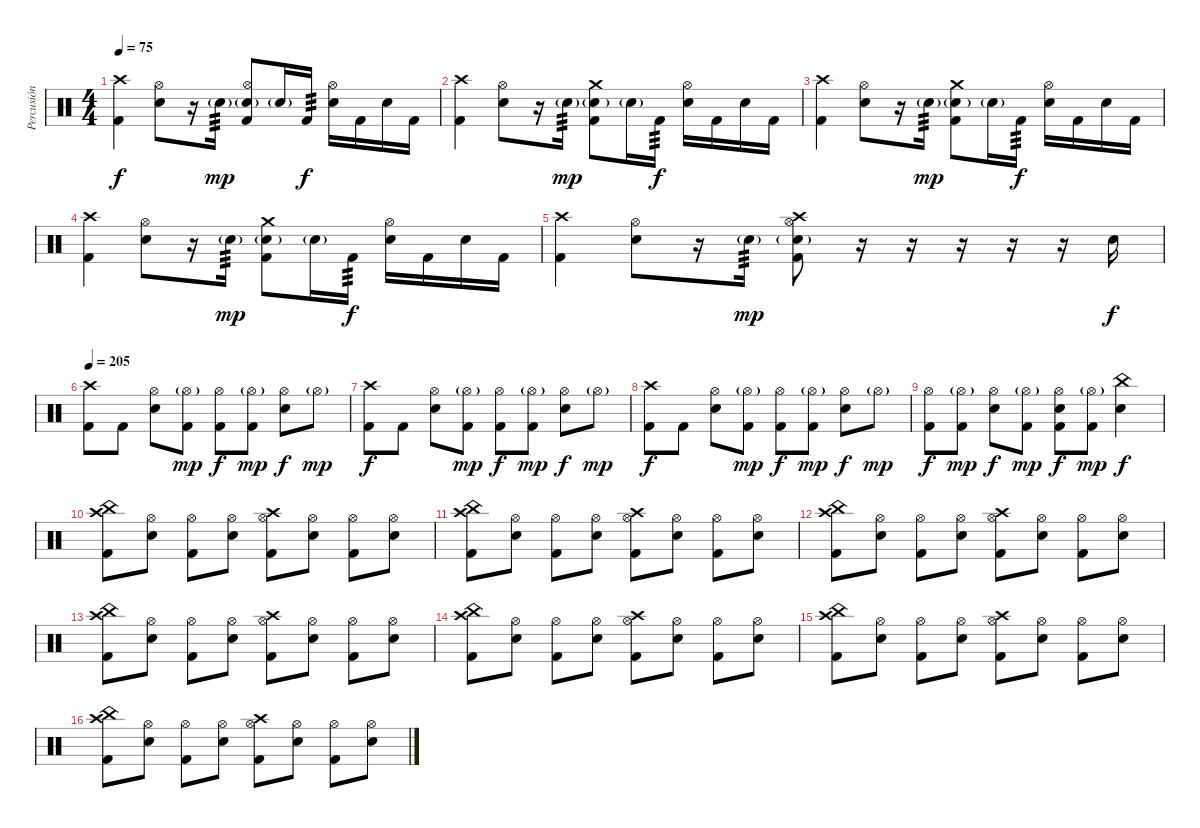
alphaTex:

\track ("Percusión" "Percusión") {instrument percussion}
\staff {score}
\articulation defaults
\ts (4 4)
\tempo 75
\clef neutral
\ks c
("Crash high (hit)" "Kick (hit) 2").4{dy f} ("Hi-Hat (open)" "Electric Snare (hit)").8 r.16 "Electric Snare (hit)"{g}.16{tp 3 dy mp} ("Hi-Hat (open)" "Electric Snare (hit)"{g} "Kick (hit) 2").8 "Electric Snare (hit)"{g}.16 "Kick (hit) 2".16{tp 3 dy f} ("Hi-Hat (open)" "Electric Snare (hit)").16 "Kick (hit) 2".16 "Electric Snare (hit)".16 "Kick (hit) 2".16 |
("Crash high (hit)" "Kick (hit) 2").4 ("Hi-Hat (open)" "Electric Snare (hit)").8 r.16 "Electric Snare (hit)"{g}.16{tp 3 dy mp} ("Crash medium (hit)" "Electric Snare (hit)"{g} "Kick (hit) 2").8 "Electric Snare (hit)"{g}.16 "Kick (hit) 2".16{tp 3 dy f} ("Hi-Hat (open)" "Electric Snare (hit)").16 "Kick (hit) 2".16 "Electric Snare (hit)".16 "Kick (hit) 2".16 |
("Crash high (hit)" "Kick (hit) 2").4 ("Hi-Hat (open)" "Electric Snare (hit)").8 r.16 "Electric Snare (hit)"{g}.16{tp 3 dy mp} ("Crash medium (hit)" "Electric Snare (hit)"{g} "Kick (hit) 2").8 "Electric Snare (hit)"{g}.16 "Kick (hit) 2".16{tp 3 dy f} ("Hi-Hat (open)" "Electric Snare (hit)").16 "Kick (hit) 2".16 "Electric Snare (hit)".16 "Kick (hit) 2".16 |
("Crash high (hit)" "Kick (hit) 2").4 ("Hi-Hat (open)" "Electric Snare (hit)").8 r.16 "Electric Snare (hit)"{g}.16{tp 3 dy mp} ("Crash medium (hit)" "Electric Snare (hit)"{g} "Kick (hit) 2").8 "Electric Snare (hit)"{g}.16 "Kick (hit) 2".16{tp 3 dy f} ("Hi-Hat (open)" "Electric Snare (hit)").16 "Kick (hit) 2".16 "Electric Snare (hit)".16 "Kick (hit) 2".16 |
("Crash high (hit)" "Kick (hit) 2").4 ("Hi-Hat (open)" "Electric Snare (hit)").8 r.16 "Electric Snare (hit)"{g}.16{tp 3 dy mp} ("Crash high (hit)" "Hi-Hat (open)" "Electric Snare (hit)"{g} "Kick (hit) 2").8 r.16 r.16 r.16 r.16 r.16 "Electric Snare (hit)".16{dy f} |
\tempo 205
("Crash high (hit)" "Kick (hit) 2").8 "Kick (hit) 2".8 ("Hi-Hat (open)" "Electric Snare (hit)").8 ("Hi-Hat (open)"{g} "Kick (hit) 2").8{dy mp} ("Hi-Hat (open)" "Kick (hit) 2").8{dy f} ("Hi-Hat (open)"{g} "Kick (hit) 2").8{dy mp} ("Hi-Hat (open)" "Electric Snare (hit)").8{dy f} "Hi-Hat (open)"{g}.8{dy mp} |
("Crash high (hit)" "Kick (hit) 2").8{dy f} "Kick (hit) 2".8 ("Hi-Hat (open)" "Electric Snare (hit)").8 ("Hi-Hat (open)"{g} "Kick (hit) 2").8{dy mp} ("Hi-Hat (open)" "Kick (hit) 2").8{dy f} ("Hi-Hat (open)"{g} "Kick (hit) 2").8{dy mp} ("Hi-Hat (open)" "Electric Snare (hit)").8{dy f} "Hi-Hat (open)"{g}.8{dy mp} |
("Crash high (hit)" "Kick (hit) 2").8{dy f} "Kick (hit) 2".8 ("Hi-Hat (open)" "Electric Snare (hit)").8 ("Hi-Hat (open)"{g} "Kick (hit) 2").8{dy mp} ("Hi-Hat (open)" "Kick (hit) 2").8{dy f} ("Hi-Hat (open)"{g} "Kick (hit) 2").8{dy mp} ("Hi-Hat (open)" "Electric Snare (hit)").8{dy f} "Hi-Hat (open)"{g}.8{dy mp} |
("Hi-Hat (open)" "Kick (hit) 2").8{dy f} ("Hi-Hat (open)"{g} "Kick (hit) 2").8{dy mp} ("Hi-Hat (open)" "Electric Snare (hit)").8{dy f} ("Hi-Hat (open)"{g} "Kick (hit) 2").8{dy mp} ("Hi-Hat (open)" "Electric Snare (hit)" "Kick (hit) 2").8{dy f} ("Hi-Hat (open)"{g} "Kick (hit) 2").8{dy mp} ("China (hit)" "Electric Snare (hit)").4{dy f} |
("China (hit)" "Crash high (hit)" "Kick (hit) 2").8 ("Hi-Hat (open)" "Electric Snare (hit)").8 ("Hi-Hat (open)" "Kick (hit) 2").8 ("Hi-Hat (open)" "Electric Snare (hit)").8 ("Crash high (hit)" "Hi-Hat (open)" "Kick (hit) 2").8 ("Hi-Hat (open)" "Electric Snare (hit)").8 ("Hi-Hat (open)" "Kick (hit) 2").8 ("Hi-Hat (open)" "Electric Snare (hit)").8 |
("China (hit)" "Crash high (hit)" "Kick (hit) 2").8 ("Hi-Hat (open)" "Electric Snare (hit)").8 ("Hi-Hat (open)" "Kick (hit) 2").8 ("Hi-Hat (open)" "Electric Snare (hit)").8 ("Crash high (hit)" "Hi-Hat (open)" "Kick (hit) 2").8 ("Hi-Hat (open)" "Electric Snare (hit)").8 ("Hi-Hat (open)" "Kick (hit) 2").8 ("Hi-Hat (open)" "Electric Snare (hit)").8 |
("China (hit)" "Crash high (hit)" "Kick (hit) 2").8 ("Hi-Hat (open)" "Electric Snare (hit)").8 ("Hi-Hat (open)" "Kick (hit) 2").8 ("Hi-Hat (open)" "Electric Snare (hit)").8 ("Crash high (hit)" "Hi-Hat (open)" "Kick (hit) 2").8 ("Hi-Hat (open)" "Electric Snare (hit)").8 ("Hi-Hat (open)" "Kick (hit) 2").8 ("Hi-Hat (open)" "Electric Snare (hit)").8 |
("China (hit)" "Crash high (hit)" "Kick (hit) 2").8 ("Hi-Hat (open)" "Electric Snare (hit)").8 ("Hi-Hat (open)" "Kick (hit) 2").8 ("Hi-Hat (open)" "Electric Snare (hit)").8 ("Crash high (hit)" "Hi-Hat (open)" "Kick (hit) 2").8 ("Hi-Hat (open)" "Electric Snare (hit)").8 ("Hi-Hat (open)" "Kick (hit) 2").8 ("Hi-Hat (open)" "Electric Snare (hit)").8 |
("China (hit)" "Crash high (hit)" "Kick (hit) 2").8 ("Hi-Hat (open)" "Electric Snare (hit)").8 ("Hi-Hat (open)" "Kick (hit) 2").8 ("Hi-Hat (open)" "Electric Snare (hit)").8 ("Crash high (hit)" "Hi-Hat (open)" "Kick (hit) 2").8 ("Hi-Hat (open)" "Electric Snare (hit)").8 ("Hi-Hat (open)" "Kick (hit) 2").8 ("Hi-Hat (open)" "Electric Snare (hit)").8 |
("China (hit)" "Crash high (hit)" "Kick (hit) 2").8 ("Hi-Hat (open)" "Electric Snare (hit)").8 ("Hi-Hat (open)" "Kick (hit) 2").8 ("Hi-Hat (open)" "Electric Snare (hit)").8 ("Crash high (hit)" "Hi-Hat (open)" "Kick (hit) 2").8 ("Hi-Hat (open)" "Electric Snare (hit)").8 ("Hi-Hat (open)" "Kick (hit) 2").8 ("Hi-Hat (open)" "Electric Snare (hit)").8 |
("China (hit)" "Crash high (hit)" "Kick (hit) 2").8 ("Hi-Hat (open)" "Electric Snare (hit)").8 ("Hi-Hat (open)" "Kick (hit) 2").8 ("Hi-Hat (open)" "Electric Snare (hit)").8 ("Crash high (hit)" "Hi-Hat (open)" "Kick (hit) 2").8 ("Hi-Hat (open)" "Electric Snare (hit)").8 ("Hi-Hat (open)" "Kick (hit) 2").8 ("Hi-Hat (open)" "Electric Snare (hit)").8
